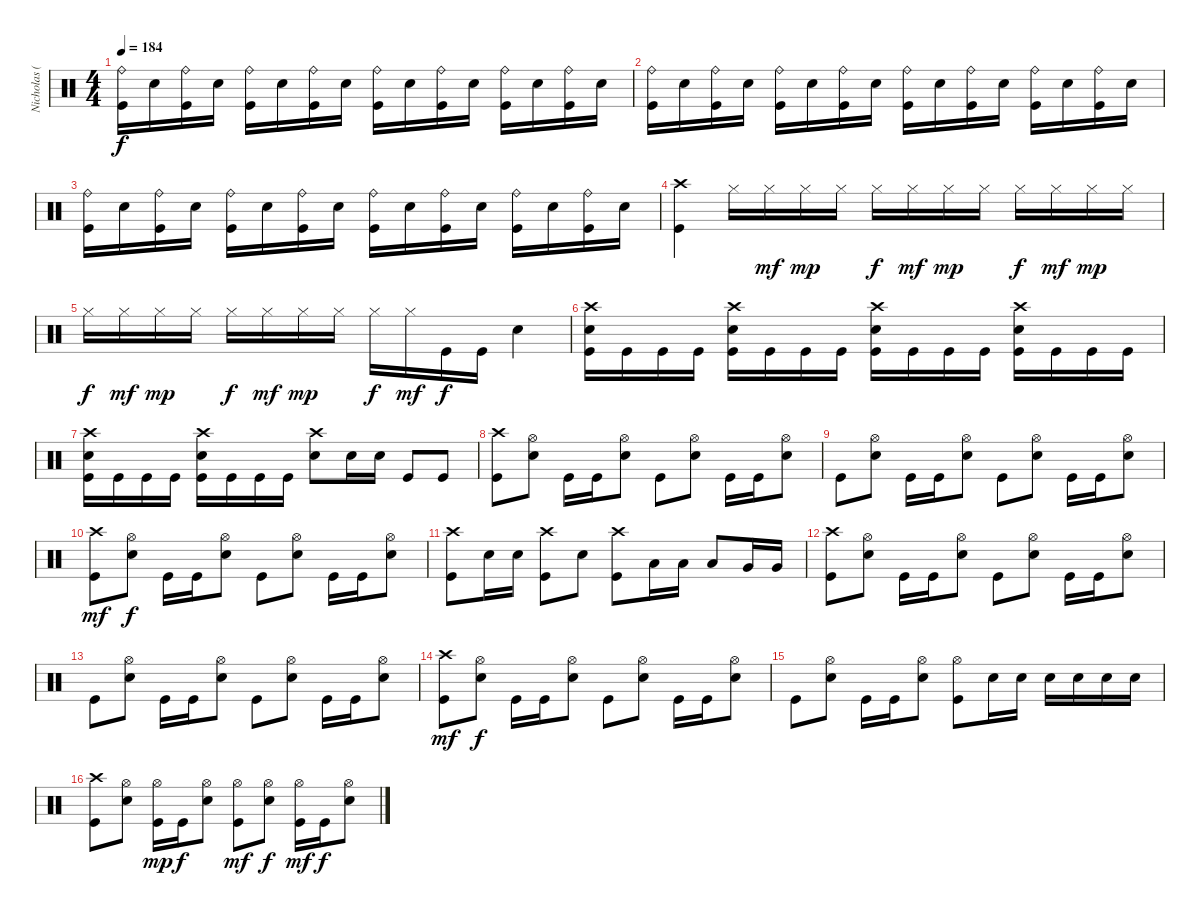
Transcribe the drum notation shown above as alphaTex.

\track ("Nicholas (Drums)" "Nicholas (") {instrument percussion}
\staff {score}
\articulation defaults
\ts (4 4)
\tempo 184
\clef neutral
\ks c
("Ride (bell)" "Kick (hit)").16{dy f} "Electric Snare (hit)".16 ("Ride (bell)" "Kick (hit)").16 "Electric Snare (hit)".16 ("Ride (bell)" "Kick (hit)").16 "Electric Snare (hit)".16 ("Ride (bell)" "Kick (hit)").16 "Electric Snare (hit)".16 ("Ride (bell)" "Kick (hit)").16 "Electric Snare (hit)".16 ("Ride (bell)" "Kick (hit)").16 "Electric Snare (hit)".16 ("Ride (bell)" "Kick (hit)").16 "Electric Snare (hit)".16 ("Ride (bell)" "Kick (hit)").16 "Electric Snare (hit)".16 |
("Ride (bell)" "Kick (hit)").16 "Electric Snare (hit)".16 ("Ride (bell)" "Kick (hit)").16 "Electric Snare (hit)".16 ("Ride (bell)" "Kick (hit)").16 "Electric Snare (hit)".16 ("Ride (bell)" "Kick (hit)").16 "Electric Snare (hit)".16 ("Ride (bell)" "Kick (hit)").16 "Electric Snare (hit)".16 ("Ride (bell)" "Kick (hit)").16 "Electric Snare (hit)".16 ("Ride (bell)" "Kick (hit)").16 "Electric Snare (hit)".16 ("Ride (bell)" "Kick (hit)").16 "Electric Snare (hit)".16 |
("Ride (bell)" "Kick (hit)").16 "Electric Snare (hit)".16 ("Ride (bell)" "Kick (hit)").16 "Electric Snare (hit)".16 ("Ride (bell)" "Kick (hit)").16 "Electric Snare (hit)".16 ("Ride (bell)" "Kick (hit)").16 "Electric Snare (hit)".16 ("Ride (bell)" "Kick (hit)").16 "Electric Snare (hit)".16 ("Ride (bell)" "Kick (hit)").16 "Electric Snare (hit)".16 ("Ride (bell)" "Kick (hit)").16 "Electric Snare (hit)".16 ("Ride (bell)" "Kick (hit)").16 "Electric Snare (hit)".16 |
("Crash high (hit)" "Kick (hit)").4 "Hi-Hat (closed)".16 "Hi-Hat (closed)".16{dy mf} "Hi-Hat (closed)".16{dy mp} "Hi-Hat (closed)".16 "Hi-Hat (closed)".16{dy f} "Hi-Hat (closed)".16{dy mf} "Hi-Hat (closed)".16{dy mp} "Hi-Hat (closed)".16 "Hi-Hat (closed)".16{dy f} "Hi-Hat (closed)".16{dy mf} "Hi-Hat (closed)".16{dy mp} "Hi-Hat (closed)".16 |
"Hi-Hat (closed)".16{dy f} "Hi-Hat (closed)".16{dy mf} "Hi-Hat (closed)".16{dy mp} "Hi-Hat (closed)".16 "Hi-Hat (closed)".16{dy f} "Hi-Hat (closed)".16{dy mf} "Hi-Hat (closed)".16{dy mp} "Hi-Hat (closed)".16 "Hi-Hat (closed)".16{dy f} "Hi-Hat (closed)".16{dy mf} "Kick (hit)".16{dy f} "Kick (hit)".16 "Electric Snare (hit)".4 |
("Crash high (hit)" "Electric Snare (hit)" "Kick (hit)").16 "Kick (hit)".16 "Kick (hit)".16 "Kick (hit)".16 ("Crash high (hit)" "Electric Snare (hit)" "Kick (hit)").16 "Kick (hit)".16 "Kick (hit)".16 "Kick (hit)".16 ("Crash high (hit)" "Electric Snare (hit)" "Kick (hit)").16 "Kick (hit)".16 "Kick (hit)".16 "Kick (hit)".16 ("Crash high (hit)" "Electric Snare (hit)" "Kick (hit)").16 "Kick (hit)".16 "Kick (hit)".16 "Kick (hit)".16 |
("Crash high (hit)" "Electric Snare (hit)" "Kick (hit)").16 "Kick (hit)".16 "Kick (hit)".16 "Kick (hit)".16 ("Crash high (hit)" "Electric Snare (hit)" "Kick (hit)").16 "Kick (hit)".16 "Kick (hit)".16 "Kick (hit)".16 ("Crash high (hit)" "Electric Snare (hit)").8 "Electric Snare (hit)".16 "Electric Snare (hit)".16 "Kick (hit)".8 "Kick (hit)".8 |
("Crash high (hit)" "Kick (hit)").8 ("Hi-Hat (open)" "Electric Snare (hit)").8 "Kick (hit)".16 "Kick (hit)".16 ("Hi-Hat (open)" "Electric Snare (hit)").8 "Kick (hit)".8 ("Hi-Hat (open)" "Electric Snare (hit)").8 "Kick (hit)".16 "Kick (hit)".16 ("Hi-Hat (open)" "Electric Snare (hit)").8 |
"Kick (hit)".8 ("Hi-Hat (open)" "Electric Snare (hit)").8 "Kick (hit)".16 "Kick (hit)".16 ("Hi-Hat (open)" "Electric Snare (hit)").8 "Kick (hit)".8 ("Hi-Hat (open)" "Electric Snare (hit)").8 "Kick (hit)".16 "Kick (hit)".16 ("Hi-Hat (open)" "Electric Snare (hit)").8 |
("Crash high (hit)" "Kick (hit)").8{dy mf} ("Hi-Hat (open)" "Electric Snare (hit)").8{dy f} "Kick (hit)".16 "Kick (hit)".16 ("Hi-Hat (open)" "Electric Snare (hit)").8 "Kick (hit)".8 ("Hi-Hat (open)" "Electric Snare (hit)").8 "Kick (hit)".16 "Kick (hit)".16 ("Hi-Hat (open)" "Electric Snare (hit)").8 |
("Crash high (hit)" "Kick (hit)").8 "Electric Snare (hit)".16 "Electric Snare (hit)".16 ("Crash high (hit)" "Kick (hit)").8 "Electric Snare (hit)".8 ("Crash high (hit)" "Kick (hit)").8 "Low Tom (hit)".16 "Low Tom (hit)".16 "Low Tom (hit)".8 "Very Low Tom (hit)".16 "Very Low Tom (hit)".16 |
("Crash high (hit)" "Kick (hit)").8 ("Hi-Hat (open)" "Electric Snare (hit)").8 "Kick (hit)".16 "Kick (hit)".16 ("Hi-Hat (open)" "Electric Snare (hit)").8 "Kick (hit)".8 ("Hi-Hat (open)" "Electric Snare (hit)").8 "Kick (hit)".16 "Kick (hit)".16 ("Hi-Hat (open)" "Electric Snare (hit)").8 |
"Kick (hit)".8 ("Hi-Hat (open)" "Electric Snare (hit)").8 "Kick (hit)".16 "Kick (hit)".16 ("Hi-Hat (open)" "Electric Snare (hit)").8 "Kick (hit)".8 ("Hi-Hat (open)" "Electric Snare (hit)").8 "Kick (hit)".16 "Kick (hit)".16 ("Hi-Hat (open)" "Electric Snare (hit)").8 |
("Crash high (hit)" "Kick (hit)").8{dy mf} ("Hi-Hat (open)" "Electric Snare (hit)").8{dy f} "Kick (hit)".16 "Kick (hit)".16 ("Hi-Hat (open)" "Electric Snare (hit)").8 "Kick (hit)".8 ("Hi-Hat (open)" "Electric Snare (hit)").8 "Kick (hit)".16 "Kick (hit)".16 ("Hi-Hat (open)" "Electric Snare (hit)").8 |
"Kick (hit)".8 ("Hi-Hat (open)" "Electric Snare (hit)").8 "Kick (hit)".16 "Kick (hit)".16 ("Hi-Hat (open)" "Electric Snare (hit)").8 ("Hi-Hat (open)" "Kick (hit)").8 "Electric Snare (hit)".16 "Electric Snare (hit)".16 "Electric Snare (hit)".16 "Electric Snare (hit)".16 "Electric Snare (hit)".16 "Electric Snare (hit)".16 |
("Crash high (hit)" "Kick (hit)").8 ("Hi-Hat (open)" "Electric Snare (hit)").8 ("Hi-Hat (open)" "Kick (hit)").16{dy mp} "Kick (hit)".16{dy f} ("Hi-Hat (open)" "Electric Snare (hit)").8 ("Hi-Hat (open)" "Kick (hit)").8{dy mf} ("Hi-Hat (open)" "Electric Snare (hit)").8{dy f} ("Hi-Hat (open)" "Kick (hit)").16{dy mf} "Kick (hit)".16{dy f} ("Hi-Hat (open)" "Electric Snare (hit)").8
